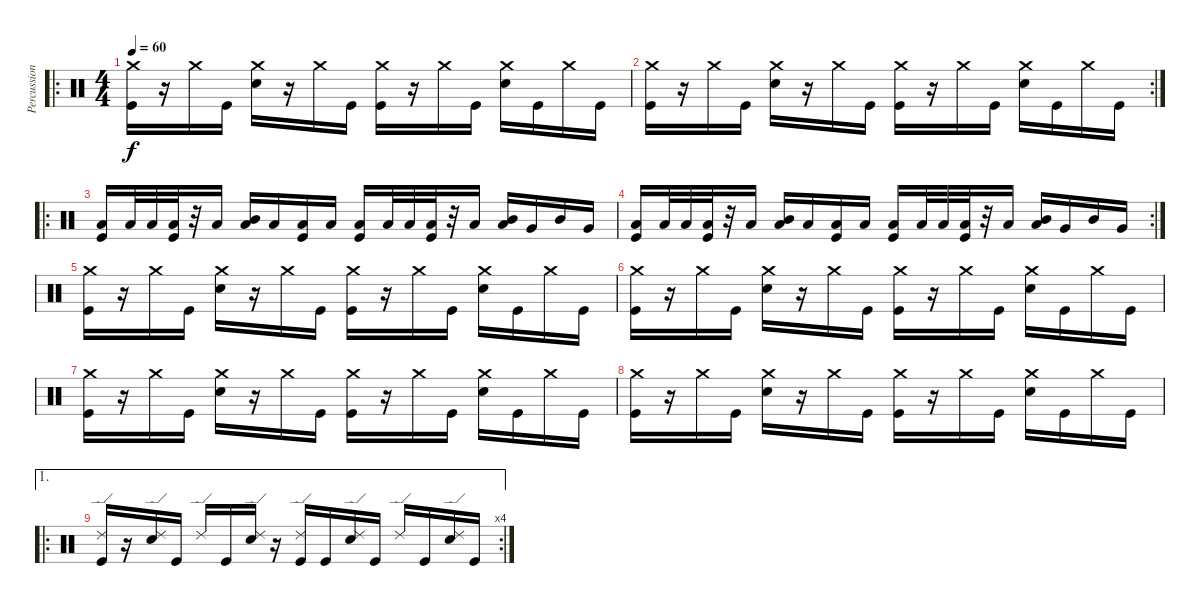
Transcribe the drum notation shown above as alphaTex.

\track ("Percussion" "Percussion") {instrument percussion}
\staff {score}
\articulation defaults
\ro
\ts (4 4)
\tempo 60
\clef neutral
\ks c
("Crash medium (hit)" "Kick (hit)").16{dy f} r.16 "Crash medium (hit)".16 "Kick (hit)".16 ("Crash medium (hit)" "Electric Snare (hit)").16 r.16 "Crash medium (hit)".16 "Kick (hit)".16 ("Crash medium (hit)" "Kick (hit)").16 r.16 "Crash medium (hit)".16 "Kick (hit)".16 ("Crash medium (hit)" "Electric Snare (hit)").16 "Kick (hit)".16 "Crash medium (hit)".16 "Kick (hit)".16 |
\rc 2
("Crash medium (hit)" "Kick (hit)").16 r.16 "Crash medium (hit)".16 "Kick (hit)".16 ("Crash medium (hit)" "Electric Snare (hit)").16 r.16 "Crash medium (hit)".16 "Kick (hit)".16 ("Crash medium (hit)" "Kick (hit)").16 r.16 "Crash medium (hit)".16 "Kick (hit)".16 ("Crash medium (hit)" "Electric Snare (hit)").16 "Kick (hit)".16 "Crash medium (hit)".16 "Kick (hit)".16 |
\ro
("Low Floor Tom (hit)" "Kick (hit)").16 "Low Floor Tom (hit)".32 "Low Tom (hit)".32 ("Low Floor Tom (hit)" "Kick (hit)").32 r.32 "Low Floor Tom (hit)".16 ("Low Floor Tom (hit)" "Mid Tom (hit)").16 "Low Floor Tom (hit)".16 ("Low Floor Tom (hit)" "Kick (hit)").16 "Low Floor Tom (hit)".16 ("Low Floor Tom (hit)" "Kick (hit)").16 "Low Floor Tom (hit)".32 "Low Tom (hit)".32 ("Low Floor Tom (hit)" "Kick (hit)").32 r.32 "Low Floor Tom (hit)".16 ("Low Floor Tom (hit)" "Mid Tom (hit)").16 "Very Low Tom (hit)".16 "Mid Tom (hit)".16 "Very Low Tom (hit)".16 |
\rc 2
("Low Floor Tom (hit)" "Kick (hit)").16 "Low Floor Tom (hit)".32 "Low Tom (hit)".32 ("Low Floor Tom (hit)" "Kick (hit)").32 r.32 "Low Floor Tom (hit)".16 ("Low Floor Tom (hit)" "Mid Tom (hit)").16 "Low Floor Tom (hit)".16 ("Low Floor Tom (hit)" "Kick (hit)").16 "Low Floor Tom (hit)".16 ("Low Floor Tom (hit)" "Kick (hit)").16 "Low Floor Tom (hit)".32 "Low Tom (hit)".32 ("Low Floor Tom (hit)" "Kick (hit)").32 r.32 "Low Floor Tom (hit)".16 ("Low Floor Tom (hit)" "Mid Tom (hit)").16 "Very Low Tom (hit)".16 "Mid Tom (hit)".16 "Very Low Tom (hit)".16 |
("Crash medium (hit)" "Kick (hit)").16 r.16 "Crash medium (hit)".16 "Kick (hit)".16 ("Crash medium (hit)" "Electric Snare (hit)").16 r.16 "Crash medium (hit)".16 "Kick (hit)".16 ("Crash medium (hit)" "Kick (hit)").16 r.16 "Crash medium (hit)".16 "Kick (hit)".16 ("Crash medium (hit)" "Electric Snare (hit)").16 "Kick (hit)".16 "Crash medium (hit)".16 "Kick (hit)".16 |
("Crash medium (hit)" "Kick (hit)").16 r.16 "Crash medium (hit)".16 "Kick (hit)".16 ("Crash medium (hit)" "Electric Snare (hit)").16 r.16 "Crash medium (hit)".16 "Kick (hit)".16 ("Crash medium (hit)" "Kick (hit)").16 r.16 "Crash medium (hit)".16 "Kick (hit)".16 ("Crash medium (hit)" "Electric Snare (hit)").16 "Kick (hit)".16 "Crash medium (hit)".16 "Kick (hit)".16 |
("Crash medium (hit)" "Kick (hit)").16 r.16 "Crash medium (hit)".16 "Kick (hit)".16 ("Crash medium (hit)" "Electric Snare (hit)").16 r.16 "Crash medium (hit)".16 "Kick (hit)".16 ("Crash medium (hit)" "Kick (hit)").16 r.16 "Crash medium (hit)".16 "Kick (hit)".16 ("Crash medium (hit)" "Electric Snare (hit)").16 "Kick (hit)".16 "Crash medium (hit)".16 "Kick (hit)".16 |
("Crash medium (hit)" "Kick (hit)").16 r.16 "Crash medium (hit)".16 "Kick (hit)".16 ("Crash medium (hit)" "Electric Snare (hit)").16 r.16 "Crash medium (hit)".16 "Kick (hit)".16 ("Crash medium (hit)" "Kick (hit)").16 r.16 "Crash medium (hit)".16 "Kick (hit)".16 ("Crash medium (hit)" "Electric Snare (hit)").16 "Kick (hit)".16 "Crash medium (hit)".16 "Kick (hit)".16 |
\ae 1
\ro
\rc 4
("Ride (edge) 2" "Kick (hit)").16 r.16 ("Ride (edge) 2" "Electric Snare (hit)").16 "Kick (hit)".16 "Ride (edge) 2".16 "Kick (hit)".16 ("Ride (edge) 2" "Electric Snare (hit)").16 r.16 ("Ride (edge) 2" "Kick (hit)").16 "Kick (hit)".16 ("Ride (edge) 2" "Electric Snare (hit)").16 "Kick (hit)".16 "Ride (edge) 2".16 "Kick (hit)".16 ("Ride (edge) 2" "Electric Snare (hit)").16 "Kick (hit)".16
